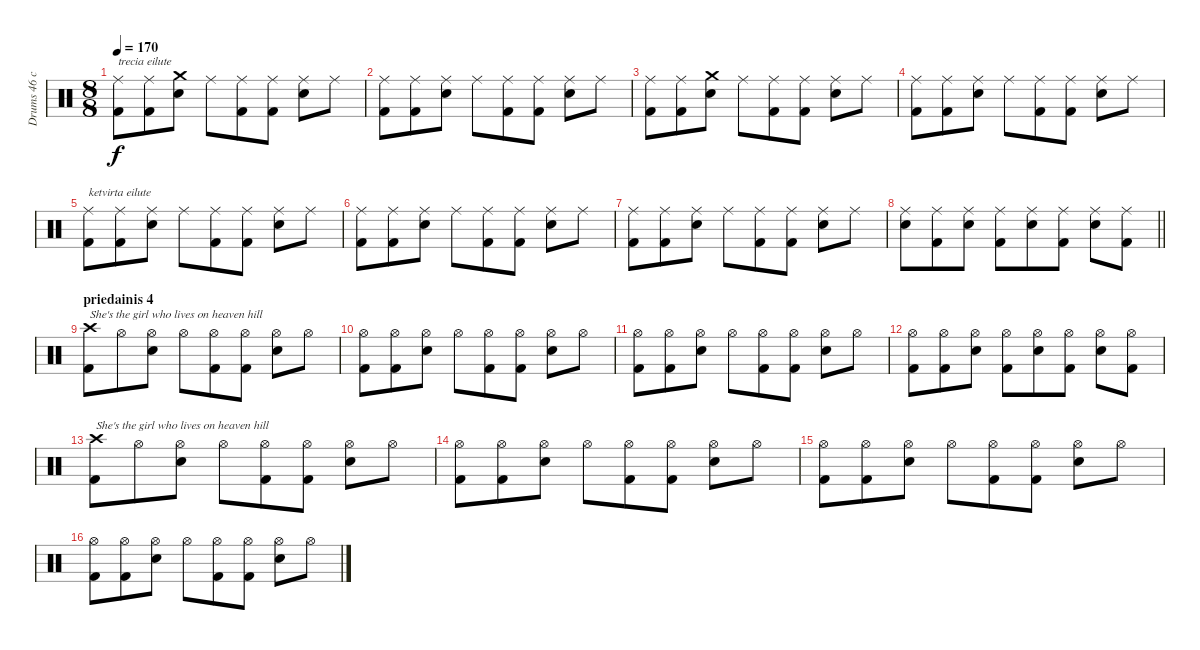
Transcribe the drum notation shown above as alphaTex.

\track ("Drums 46 chorus" "Drums 46 c") {mute instrument percussion}
\staff {score}
\articulation defaults
\ts (8 8)
\tempo 170
\clef neutral
\ks c
("Ride (middle)" "Kick (hit) 2").8{txt "trecia eilute" dy f} ("Ride (middle)" "Kick (hit) 2").8 ("Crash medium (hit)" "Snare (hit) 2").8 "Ride (middle)".8 ("Ride (middle)" "Kick (hit) 2").8 ("Ride (middle)" "Kick (hit) 2").8 ("Ride (middle)" "Snare (hit) 2").8 "Ride (middle)".8 |
("Ride (middle)" "Kick (hit) 2").8 ("Ride (middle)" "Kick (hit) 2").8 ("Ride (middle)" "Snare (hit) 2").8 "Ride (middle)".8 ("Ride (middle)" "Kick (hit) 2").8 ("Ride (middle)" "Kick (hit) 2").8 ("Ride (middle)" "Snare (hit) 2").8 "Ride (middle)".8 |
("Ride (middle)" "Kick (hit) 2").8 ("Ride (middle)" "Kick (hit) 2").8 ("Crash medium (hit)" "Snare (hit) 2").8 "Ride (middle)".8 ("Ride (middle)" "Kick (hit) 2").8 ("Ride (middle)" "Kick (hit) 2").8 ("Ride (middle)" "Snare (hit) 2").8 "Ride (middle)".8 |
("Ride (middle)" "Kick (hit) 2").8 ("Ride (middle)" "Kick (hit) 2").8 ("Ride (middle)" "Snare (hit) 2").8 "Ride (middle)".8 ("Ride (middle)" "Kick (hit) 2").8 ("Ride (middle)" "Kick (hit) 2").8 ("Ride (middle)" "Snare (hit) 2").8 "Ride (middle)".8 |
("Ride (middle)" "Kick (hit) 2").8{txt "ketvirta eilute"} ("Ride (middle)" "Kick (hit) 2").8 ("Ride (middle)" "Snare (hit) 2").8 "Ride (middle)".8 ("Ride (middle)" "Kick (hit) 2").8 ("Ride (middle)" "Kick (hit) 2").8 ("Ride (middle)" "Snare (hit) 2").8 "Ride (middle)".8 |
("Ride (middle)" "Kick (hit) 2").8 ("Ride (middle)" "Kick (hit) 2").8 ("Ride (middle)" "Snare (hit) 2").8 "Ride (middle)".8 ("Ride (middle)" "Kick (hit) 2").8 ("Ride (middle)" "Kick (hit) 2").8 ("Ride (middle)" "Snare (hit) 2").8 "Ride (middle)".8 |
("Ride (middle)" "Kick (hit) 2").8 ("Ride (middle)" "Kick (hit) 2").8 ("Ride (middle)" "Snare (hit) 2").8 "Ride (middle)".8 ("Ride (middle)" "Kick (hit) 2").8 ("Ride (middle)" "Kick (hit) 2").8 ("Ride (middle)" "Snare (hit) 2").8 "Ride (middle)".8 |
\barLineRight lightlight
("Ride (middle)" "Snare (hit) 2").8 ("Ride (middle)" "Kick (hit) 2").8 ("Ride (middle)" "Snare (hit) 2").8 ("Ride (middle)" "Kick (hit) 2").8 ("Ride (middle)" "Snare (hit) 2").8 ("Ride (middle)" "Kick (hit) 2").8 ("Ride (middle)" "Snare (hit) 2").8 ("Ride (middle)" "Kick (hit) 2").8 |
\section ("" "priedainis 4")
("Crash high (hit)" "Kick (hit) 2").8{txt "She's the girl who lives on heaven hill"} "Hi-Hat (open)".8 ("Hi-Hat (open)" "Snare (hit) 2").8 "Hi-Hat (open)".8 ("Hi-Hat (open)" "Kick (hit) 2").8 ("Hi-Hat (open)" "Kick (hit) 2").8 ("Hi-Hat (open)" "Snare (hit) 2").8 "Hi-Hat (open)".8 |
("Hi-Hat (open)" "Kick (hit) 2").8 ("Hi-Hat (open)" "Kick (hit) 2").8 ("Hi-Hat (open)" "Snare (hit) 2").8 "Hi-Hat (open)".8 ("Hi-Hat (open)" "Kick (hit) 2").8 ("Hi-Hat (open)" "Kick (hit) 2").8 ("Hi-Hat (open)" "Snare (hit) 2").8 "Hi-Hat (open)".8 |
("Hi-Hat (open)" "Kick (hit) 2").8 ("Hi-Hat (open)" "Kick (hit) 2").8 ("Hi-Hat (open)" "Snare (hit) 2").8 "Hi-Hat (open)".8 ("Hi-Hat (open)" "Kick (hit) 2").8 ("Hi-Hat (open)" "Kick (hit) 2").8 ("Hi-Hat (open)" "Snare (hit) 2").8 "Hi-Hat (open)".8 |
("Hi-Hat (open)" "Kick (hit) 2").8 ("Hi-Hat (open)" "Kick (hit) 2").8 ("Hi-Hat (open)" "Snare (hit) 2").8 ("Hi-Hat (open)" "Kick (hit) 2").8 ("Hi-Hat (open)" "Snare (hit) 2").8 ("Hi-Hat (open)" "Kick (hit) 2").8 ("Hi-Hat (open)" "Snare (hit) 2").8 ("Hi-Hat (open)" "Kick (hit) 2").8 |
("Crash high (hit)" "Kick (hit) 2").8{txt "She's the girl who lives on heaven hill"} "Hi-Hat (open)".8 ("Hi-Hat (open)" "Snare (hit) 2").8 "Hi-Hat (open)".8 ("Hi-Hat (open)" "Kick (hit) 2").8 ("Hi-Hat (open)" "Kick (hit) 2").8 ("Hi-Hat (open)" "Snare (hit) 2").8 "Hi-Hat (open)".8 |
("Hi-Hat (open)" "Kick (hit) 2").8 ("Hi-Hat (open)" "Kick (hit) 2").8 ("Hi-Hat (open)" "Snare (hit) 2").8 "Hi-Hat (open)".8 ("Hi-Hat (open)" "Kick (hit) 2").8 ("Hi-Hat (open)" "Kick (hit) 2").8 ("Hi-Hat (open)" "Snare (hit) 2").8 "Hi-Hat (open)".8 |
("Hi-Hat (open)" "Kick (hit) 2").8 ("Hi-Hat (open)" "Kick (hit) 2").8 ("Hi-Hat (open)" "Snare (hit) 2").8 "Hi-Hat (open)".8 ("Hi-Hat (open)" "Kick (hit) 2").8 ("Hi-Hat (open)" "Kick (hit) 2").8 ("Hi-Hat (open)" "Snare (hit) 2").8 "Hi-Hat (open)".8 |
("Hi-Hat (open)" "Kick (hit) 2").8 ("Hi-Hat (open)" "Kick (hit) 2").8 ("Hi-Hat (open)" "Snare (hit) 2").8 "Hi-Hat (open)".8 ("Hi-Hat (open)" "Kick (hit) 2").8 ("Hi-Hat (open)" "Kick (hit) 2").8 ("Hi-Hat (open)" "Snare (hit) 2").8 "Hi-Hat (open)".8
